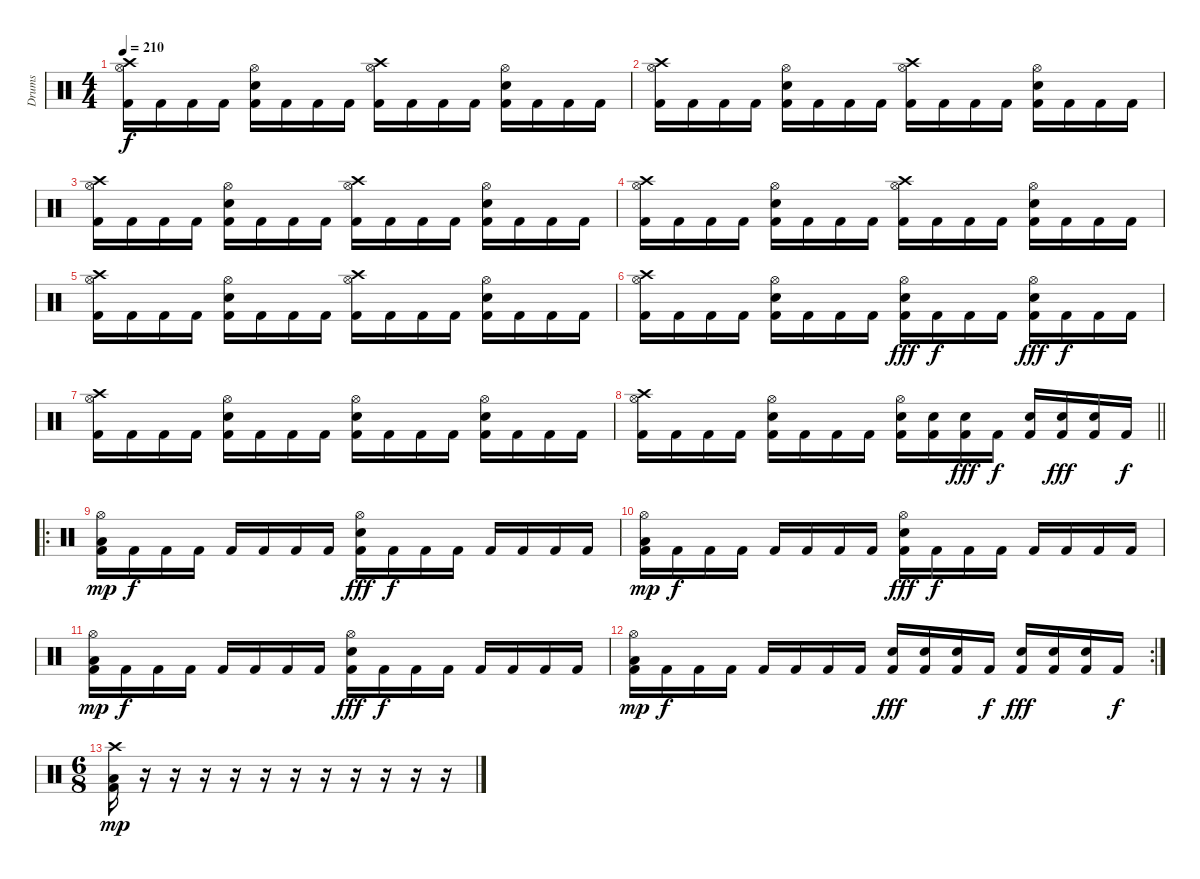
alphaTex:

\track ("Drums" "Drums") {instrument percussion}
\staff {score}
\articulation defaults
\ts (4 4)
\tempo 210
\clef neutral
\ks c
("Crash high (hit)" "Hi-Hat (open)" "Kick (hit) 2").16{dy f} "Kick (hit) 2".16 "Kick (hit) 2".16 "Kick (hit) 2".16 ("Hi-Hat (open)" "Snare (hit) 2" "Kick (hit) 2").16 "Kick (hit) 2".16 "Kick (hit) 2".16 "Kick (hit) 2".16 ("Crash high (hit)" "Hi-Hat (open)" "Kick (hit) 2").16 "Kick (hit) 2".16 "Kick (hit) 2".16 "Kick (hit) 2".16 ("Hi-Hat (open)" "Snare (hit) 2" "Kick (hit) 2").16 "Kick (hit) 2".16 "Kick (hit) 2".16 "Kick (hit) 2".16 |
("Crash high (hit)" "Hi-Hat (open)" "Kick (hit) 2").16 "Kick (hit) 2".16 "Kick (hit) 2".16 "Kick (hit) 2".16 ("Hi-Hat (open)" "Snare (hit) 2" "Kick (hit) 2").16 "Kick (hit) 2".16 "Kick (hit) 2".16 "Kick (hit) 2".16 ("Crash high (hit)" "Hi-Hat (open)" "Kick (hit) 2").16 "Kick (hit) 2".16 "Kick (hit) 2".16 "Kick (hit) 2".16 ("Hi-Hat (open)" "Snare (hit) 2" "Kick (hit) 2").16 "Kick (hit) 2".16 "Kick (hit) 2".16 "Kick (hit) 2".16 |
("Crash high (hit)" "Hi-Hat (open)" "Kick (hit) 2").16 "Kick (hit) 2".16 "Kick (hit) 2".16 "Kick (hit) 2".16 ("Hi-Hat (open)" "Snare (hit) 2" "Kick (hit) 2").16 "Kick (hit) 2".16 "Kick (hit) 2".16 "Kick (hit) 2".16 ("Crash high (hit)" "Hi-Hat (open)" "Kick (hit) 2").16 "Kick (hit) 2".16 "Kick (hit) 2".16 "Kick (hit) 2".16 ("Hi-Hat (open)" "Snare (hit) 2" "Kick (hit) 2").16 "Kick (hit) 2".16 "Kick (hit) 2".16 "Kick (hit) 2".16 |
("Crash high (hit)" "Hi-Hat (open)" "Kick (hit) 2").16 "Kick (hit) 2".16 "Kick (hit) 2".16 "Kick (hit) 2".16 ("Hi-Hat (open)" "Snare (hit) 2" "Kick (hit) 2").16 "Kick (hit) 2".16 "Kick (hit) 2".16 "Kick (hit) 2".16 ("Crash high (hit)" "Hi-Hat (open)" "Kick (hit) 2").16 "Kick (hit) 2".16 "Kick (hit) 2".16 "Kick (hit) 2".16 ("Hi-Hat (open)" "Snare (hit) 2" "Kick (hit) 2").16 "Kick (hit) 2".16 "Kick (hit) 2".16 "Kick (hit) 2".16 |
("Crash high (hit)" "Hi-Hat (open)" "Kick (hit) 2").16 "Kick (hit) 2".16 "Kick (hit) 2".16 "Kick (hit) 2".16 ("Hi-Hat (open)" "Snare (hit) 2" "Kick (hit) 2").16 "Kick (hit) 2".16 "Kick (hit) 2".16 "Kick (hit) 2".16 ("Crash high (hit)" "Hi-Hat (open)" "Kick (hit) 2").16 "Kick (hit) 2".16 "Kick (hit) 2".16 "Kick (hit) 2".16 ("Hi-Hat (open)" "Snare (hit) 2" "Kick (hit) 2").16 "Kick (hit) 2".16 "Kick (hit) 2".16 "Kick (hit) 2".16 |
("Crash high (hit)" "Hi-Hat (open)" "Kick (hit) 2").16 "Kick (hit) 2".16 "Kick (hit) 2".16 "Kick (hit) 2".16 ("Hi-Hat (open)" "Snare (hit) 2" "Kick (hit) 2").16 "Kick (hit) 2".16 "Kick (hit) 2".16 "Kick (hit) 2".16 ("Hi-Hat (open)" "Snare (hit) 2" "Kick (hit) 2").16{dy fff} "Kick (hit) 2".16{dy f} "Kick (hit) 2".16 "Kick (hit) 2".16 ("Hi-Hat (open)" "Snare (hit) 2" "Kick (hit) 2").16{dy fff} "Kick (hit) 2".16{dy f} "Kick (hit) 2".16 "Kick (hit) 2".16 |
("Crash high (hit)" "Hi-Hat (open)" "Kick (hit) 2").16 "Kick (hit) 2".16 "Kick (hit) 2".16 "Kick (hit) 2".16 ("Hi-Hat (open)" "Snare (hit) 2" "Kick (hit) 2").16 "Kick (hit) 2".16 "Kick (hit) 2".16 "Kick (hit) 2".16 ("Hi-Hat (open)" "Snare (hit) 2" "Kick (hit) 2").16 "Kick (hit) 2".16 "Kick (hit) 2".16 "Kick (hit) 2".16 ("Hi-Hat (open)" "Snare (hit) 2" "Kick (hit) 2").16 "Kick (hit) 2".16 "Kick (hit) 2".16 "Kick (hit) 2".16 |
\barLineRight lightlight
("Crash high (hit)" "Hi-Hat (open)" "Kick (hit) 2").16 "Kick (hit) 2".16 "Kick (hit) 2".16 "Kick (hit) 2".16 ("Hi-Hat (open)" "Snare (hit) 2" "Kick (hit) 2").16 "Kick (hit) 2".16 "Kick (hit) 2".16 "Kick (hit) 2".16 ("Hi-Hat (open)" "Snare (hit) 2" "Kick (hit) 2").16 ("Snare (hit) 2" "Kick (hit) 2").16 ("Snare (hit) 2" "Kick (hit) 2").16{dy fff} "Kick (hit) 2".16{dy f} ("Snare (hit) 2" "Kick (hit) 2").16 ("Snare (hit) 2" "Kick (hit) 2").16{dy fff} ("Snare (hit) 2" "Kick (hit) 2").16 "Kick (hit) 2".16{dy f} |
\ro
("Hi-Hat (open)" "Low Tom (hit)" "Kick (hit) 2").16{dy mp} "Kick (hit) 2".16{dy f} "Kick (hit) 2".16 "Kick (hit) 2".16 "Kick (hit) 2".16 "Kick (hit) 2".16 "Kick (hit) 2".16 "Kick (hit) 2".16 ("Hi-Hat (open)" "Snare (hit) 2" "Kick (hit) 2").16{dy fff} "Kick (hit) 2".16{dy f} "Kick (hit) 2".16 "Kick (hit) 2".16 "Kick (hit) 2".16 "Kick (hit) 2".16 "Kick (hit) 2".16 "Kick (hit) 2".16 |
("Hi-Hat (open)" "Low Tom (hit)" "Kick (hit) 2").16{dy mp} "Kick (hit) 2".16{dy f} "Kick (hit) 2".16 "Kick (hit) 2".16 "Kick (hit) 2".16 "Kick (hit) 2".16 "Kick (hit) 2".16 "Kick (hit) 2".16 ("Hi-Hat (open)" "Snare (hit) 2" "Kick (hit) 2").16{dy fff} "Kick (hit) 2".16{dy f} "Kick (hit) 2".16 "Kick (hit) 2".16 "Kick (hit) 2".16 "Kick (hit) 2".16 "Kick (hit) 2".16 "Kick (hit) 2".16 |
("Hi-Hat (open)" "Low Tom (hit)" "Kick (hit) 2").16{dy mp} "Kick (hit) 2".16{dy f} "Kick (hit) 2".16 "Kick (hit) 2".16 "Kick (hit) 2".16 "Kick (hit) 2".16 "Kick (hit) 2".16 "Kick (hit) 2".16 ("Hi-Hat (open)" "Snare (hit) 2" "Kick (hit) 2").16{dy fff} "Kick (hit) 2".16{dy f} "Kick (hit) 2".16 "Kick (hit) 2".16 "Kick (hit) 2".16 "Kick (hit) 2".16 "Kick (hit) 2".16 "Kick (hit) 2".16 |
\rc 2
("Hi-Hat (open)" "Low Tom (hit)" "Kick (hit) 2").16{dy mp} "Kick (hit) 2".16{dy f} "Kick (hit) 2".16 "Kick (hit) 2".16 "Kick (hit) 2".16 "Kick (hit) 2".16 "Kick (hit) 2".16 "Kick (hit) 2".16 ("Snare (hit) 2" "Kick (hit) 2").16{dy fff} ("Snare (hit) 2" "Kick (hit) 2").16 ("Snare (hit) 2" "Kick (hit) 2").16 "Kick (hit) 2".16{dy f} ("Snare (hit) 2" "Kick (hit) 2").16{dy fff} ("Snare (hit) 2" "Kick (hit) 2").16 ("Snare (hit) 2" "Kick (hit) 2").16 "Kick (hit) 2".16{dy f} |
\ts (6 8)
("Crash high (hit)" "Low Tom (hit)" "Kick (hit) 2").16{dy mp} r.16 r.16 r.16 r.16 r.16 r.16 r.16 r.16 r.16 r.16 r.16
